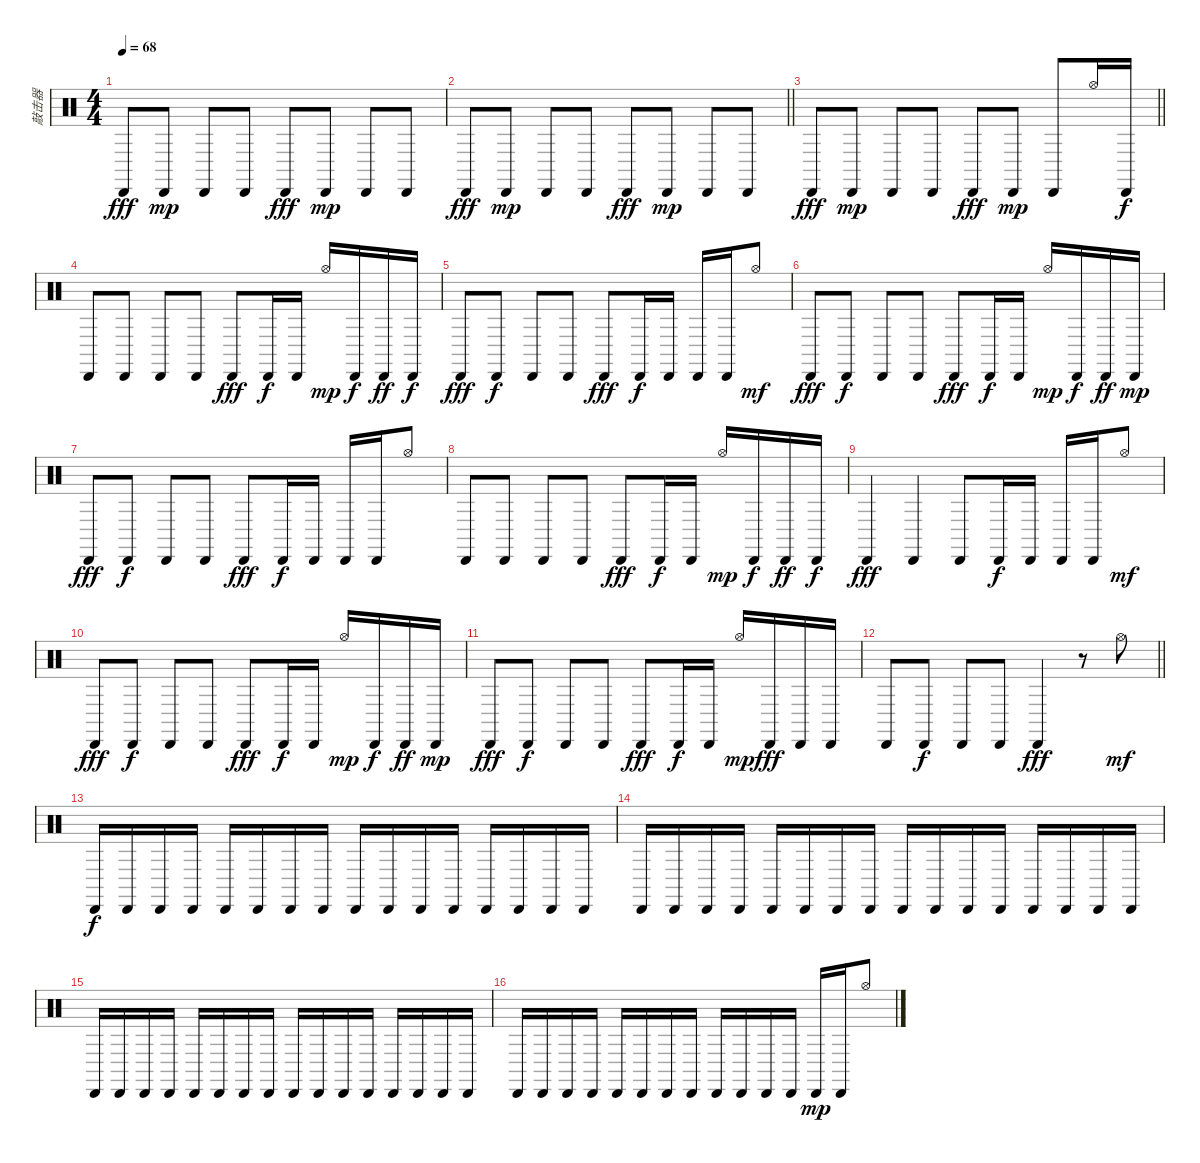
\track ("敲击器" "敲击器") {instrument percussion}
\staff {score}
\articulation defaults
\ts (4 4)
\tempo 68
\clef neutral
\ks c "Cabasa (hit)".8{dy fff} "Cabasa (hit)".8{dy mp} "Cabasa (hit)".8 "Cabasa (hit)".8 "Cabasa (hit)".8{dy fff} "Cabasa (hit)".8{dy mp} "Cabasa (hit)".8 "Cabasa (hit)".8
|
\barLineRight lightlight "Cabasa (hit)".8{dy fff} "Cabasa (hit)".8{dy mp} "Cabasa (hit)".8 "Cabasa (hit)".8 "Cabasa (hit)".8{dy fff} "Cabasa (hit)".8{dy mp} "Cabasa (hit)".8 "Cabasa (hit)".8
|
\barLineRight lightlight "Cabasa (hit)".8{dy fff} "Cabasa (hit)".8{dy mp} "Cabasa (hit)".8 "Cabasa (hit)".8 "Cabasa (hit)".8{dy fff} "Cabasa (hit)".8{dy mp} "Cabasa (hit)".8 "Hi-Hat (open)".16 "Cabasa (hit)".16{dy f}
|
"Cabasa (hit)".8 "Cabasa (hit)".8 "Cabasa (hit)".8 "Cabasa (hit)".8 "Cabasa (hit)".8{dy fff} "Cabasa (hit)".16{dy f} "Cabasa (hit)".16 "Hi-Hat (open)".16{dy mp} "Cabasa (hit)".16{dy f} "Cabasa (hit)".16{dy ff} "Cabasa (hit)".16{dy f} |
"Cabasa (hit)".8{dy fff} "Cabasa (hit)".8{dy f} "Cabasa (hit)".8 "Cabasa (hit)".8 "Cabasa (hit)".8{dy fff} "Cabasa (hit)".16{dy f} "Cabasa (hit)".16 "Cabasa (hit)".16 "Cabasa (hit)".16 "Hi-Hat (open)".8{dy mf} |
"Cabasa (hit)".8{dy fff} "Cabasa (hit)".8{dy f} "Cabasa (hit)".8 "Cabasa (hit)".8 "Cabasa (hit)".8{dy fff} "Cabasa (hit)".16{dy f} "Cabasa (hit)".16 "Hi-Hat (open)".16{dy mp} "Cabasa (hit)".16{dy f} "Cabasa (hit)".16{dy ff} "Cabasa (hit)".16{dy mp} |
"Cabasa (hit)".8{dy fff} "Cabasa (hit)".8{dy f} "Cabasa (hit)".8 "Cabasa (hit)".8 "Cabasa (hit)".8{dy fff} "Cabasa (hit)".16{dy f} "Cabasa (hit)".16 "Cabasa (hit)".16 "Cabasa (hit)".16 "Hi-Hat (open)".8 |
"Cabasa (hit)".8 "Cabasa (hit)".8 "Cabasa (hit)".8 "Cabasa (hit)".8 "Cabasa (hit)".8{dy fff} "Cabasa (hit)".16{dy f} "Cabasa (hit)".16 "Hi-Hat (open)".16{dy mp} "Cabasa (hit)".16{dy f} "Cabasa (hit)".16{dy ff} "Cabasa (hit)".16{dy f} |
"Cabasa (hit)".4{dy fff} "Cabasa (hit)".4 "Cabasa (hit)".8 "Cabasa (hit)".16{dy f} "Cabasa (hit)".16 "Cabasa (hit)".16 "Cabasa (hit)".16 "Hi-Hat (open)".8{dy mf} |
"Cabasa (hit)".8{dy fff} "Cabasa (hit)".8{dy f} "Cabasa (hit)".8 "Cabasa (hit)".8 "Cabasa (hit)".8{dy fff} "Cabasa (hit)".16{dy f} "Cabasa (hit)".16 "Hi-Hat (open)".16{dy mp} "Cabasa (hit)".16{dy f} "Cabasa (hit)".16{dy ff} "Cabasa (hit)".16{dy mp} |
"Cabasa (hit)".8{dy fff} "Cabasa (hit)".8{dy f} "Cabasa (hit)".8 "Cabasa (hit)".8 "Cabasa (hit)".8{dy fff} "Cabasa (hit)".16{dy f} "Cabasa (hit)".16 "Hi-Hat (open)".16{dy mp} "Cabasa (hit)".16{dy fff} "Cabasa (hit)".16 "Cabasa (hit)".16 |
\barLineRight lightlight "Cabasa (hit)".8 "Cabasa (hit)".8{dy f} "Cabasa (hit)".8 "Cabasa (hit)".8 "Cabasa (hit)".4{dy fff}
r.8 "Hi-Hat (open)".8{dy mf} |
"Cabasa (hit)".16{dy f} "Cabasa (hit)".16 "Cabasa (hit)".16 "Cabasa (hit)".16 "Cabasa (hit)".16 "Cabasa (hit)".16 "Cabasa (hit)".16 "Cabasa (hit)".16 "Cabasa (hit)".16 "Cabasa (hit)".16 "Cabasa (hit)".16 "Cabasa (hit)".16 "Cabasa (hit)".16 "Cabasa (hit)".16 "Cabasa (hit)".16 "Cabasa (hit)".16 |
"Cabasa (hit)".16 "Cabasa (hit)".16 "Cabasa (hit)".16 "Cabasa (hit)".16 "Cabasa (hit)".16 "Cabasa (hit)".16 "Cabasa (hit)".16 "Cabasa (hit)".16 "Cabasa (hit)".16 "Cabasa (hit)".16 "Cabasa (hit)".16 "Cabasa (hit)".16 "Cabasa (hit)".16 "Cabasa (hit)".16 "Cabasa (hit)".16 "Cabasa (hit)".16 |
"Cabasa (hit)".16 "Cabasa (hit)".16 "Cabasa (hit)".16 "Cabasa (hit)".16 "Cabasa (hit)".16 "Cabasa (hit)".16 "Cabasa (hit)".16 "Cabasa (hit)".16 "Cabasa (hit)".16 "Cabasa (hit)".16 "Cabasa (hit)".16 "Cabasa (hit)".16 "Cabasa (hit)".16 "Cabasa (hit)".16 "Cabasa (hit)".16 "Cabasa (hit)".16 |
"Cabasa (hit)".16 "Cabasa (hit)".16 "Cabasa (hit)".16 "Cabasa (hit)".16 "Cabasa (hit)".16 "Cabasa (hit)".16 "Cabasa (hit)".16 "Cabasa (hit)".16 "Cabasa (hit)".16 "Cabasa (hit)".16 "Cabasa (hit)".16 "Cabasa (hit)".16 "Cabasa (hit)".16{dy mp} "Cabasa (hit)".16 "Hi-Hat (open)".8
